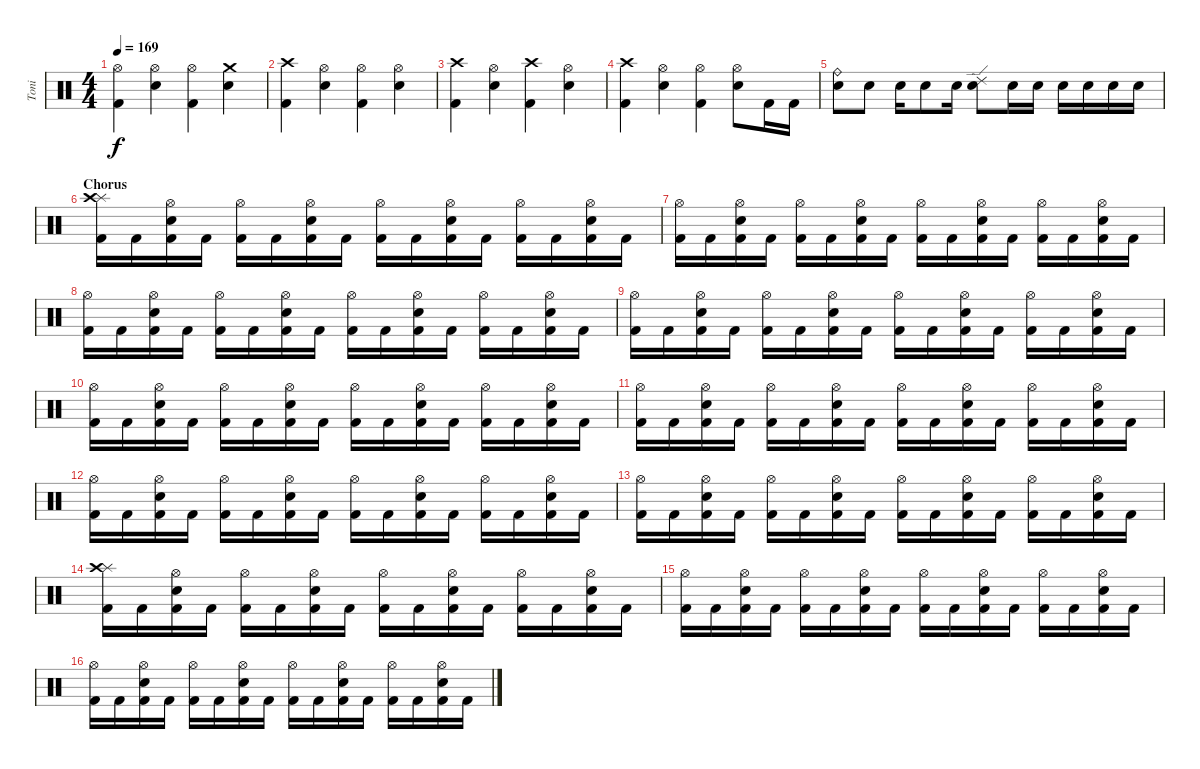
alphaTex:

\track ("Toni" "Toni") {instrument percussion}
\staff {score}
\articulation defaults
\ts (4 4)
\tempo 169
\clef neutral
\ks c
("Hi-Hat (open)" "Kick (hit) 2").4{dy f} ("Hi-Hat (open)" "Electric Snare (hit)").4 ("Hi-Hat (open)" "Kick (hit) 2").4 ("Crash medium (hit)" "Electric Snare (hit)").4 |
("Crash high (hit)" "Kick (hit) 2").4 ("Hi-Hat (open)" "Electric Snare (hit)").4 ("Hi-Hat (open)" "Kick (hit) 2").4 ("Hi-Hat (open)" "Electric Snare (hit)").4 |
("Crash high (hit)" "Kick (hit) 2").4 ("Hi-Hat (open)" "Electric Snare (hit)").4 ("Crash high (hit)" "Kick (hit) 2").4 ("Hi-Hat (open)" "Electric Snare (hit)").4 |
("Crash high (hit)" "Kick (hit) 2").4 ("Hi-Hat (open)" "Electric Snare (hit)").4 ("Hi-Hat (open)" "Kick (hit) 2").4 ("Hi-Hat (open)" "Electric Snare (hit)").8 "Kick (hit) 2".16 "Kick (hit) 2".16 |
("Ride (bell)" "Electric Snare (hit)").8 "Electric Snare (hit)".8 "Electric Snare (hit)".16 "Electric Snare (hit)".8 "Electric Snare (hit)".16 ("Ride (edge) 2" "Electric Snare (hit)").8 "Electric Snare (hit)".16 "Electric Snare (hit)".16 "Electric Snare (hit)".16 "Electric Snare (hit)".16 "Electric Snare (hit)".16 "Electric Snare (hit)".16 |
\section ("" "Chorus")
("Splash (hit)" "Crash high (hit)" "Kick (hit) 2").16 "Kick (hit) 2".16 ("Hi-Hat (open)" "Electric Snare (hit)" "Kick (hit) 2").16 "Kick (hit) 2".16 ("Hi-Hat (open)" "Kick (hit) 2").16 "Kick (hit) 2".16 ("Hi-Hat (open)" "Electric Snare (hit)" "Kick (hit) 2").16 "Kick (hit) 2".16 ("Hi-Hat (open)" "Kick (hit) 2").16 "Kick (hit) 2".16 ("Hi-Hat (open)" "Electric Snare (hit)" "Kick (hit) 2").16 "Kick (hit) 2".16 ("Hi-Hat (open)" "Kick (hit) 2").16 "Kick (hit) 2".16 ("Hi-Hat (open)" "Electric Snare (hit)" "Kick (hit) 2").16 "Kick (hit) 2".16 |
("Hi-Hat (open)" "Kick (hit) 2").16 "Kick (hit) 2".16 ("Hi-Hat (open)" "Electric Snare (hit)" "Kick (hit) 2").16 "Kick (hit) 2".16 ("Hi-Hat (open)" "Kick (hit) 2").16 "Kick (hit) 2".16 ("Hi-Hat (open)" "Electric Snare (hit)" "Kick (hit) 2").16 "Kick (hit) 2".16 ("Hi-Hat (open)" "Kick (hit) 2").16 "Kick (hit) 2".16 ("Hi-Hat (open)" "Electric Snare (hit)" "Kick (hit) 2").16 "Kick (hit) 2".16 ("Hi-Hat (open)" "Kick (hit) 2").16 "Kick (hit) 2".16 ("Hi-Hat (open)" "Electric Snare (hit)" "Kick (hit) 2").16 "Kick (hit) 2".16 |
("Hi-Hat (open)" "Kick (hit) 2").16 "Kick (hit) 2".16 ("Hi-Hat (open)" "Electric Snare (hit)" "Kick (hit) 2").16 "Kick (hit) 2".16 ("Hi-Hat (open)" "Kick (hit) 2").16 "Kick (hit) 2".16 ("Hi-Hat (open)" "Electric Snare (hit)" "Kick (hit) 2").16 "Kick (hit) 2".16 ("Hi-Hat (open)" "Kick (hit) 2").16 "Kick (hit) 2".16 ("Hi-Hat (open)" "Electric Snare (hit)" "Kick (hit) 2").16 "Kick (hit) 2".16 ("Hi-Hat (open)" "Kick (hit) 2").16 "Kick (hit) 2".16 ("Hi-Hat (open)" "Electric Snare (hit)" "Kick (hit) 2").16 "Kick (hit) 2".16 |
("Hi-Hat (open)" "Kick (hit) 2").16 "Kick (hit) 2".16 ("Hi-Hat (open)" "Electric Snare (hit)" "Kick (hit) 2").16 "Kick (hit) 2".16 ("Hi-Hat (open)" "Kick (hit) 2").16 "Kick (hit) 2".16 ("Hi-Hat (open)" "Electric Snare (hit)" "Kick (hit) 2").16 "Kick (hit) 2".16 ("Hi-Hat (open)" "Kick (hit) 2").16 "Kick (hit) 2".16 ("Hi-Hat (open)" "Electric Snare (hit)" "Kick (hit) 2").16 "Kick (hit) 2".16 ("Hi-Hat (open)" "Kick (hit) 2").16 "Kick (hit) 2".16 ("Hi-Hat (open)" "Electric Snare (hit)" "Kick (hit) 2").16 "Kick (hit) 2".16 |
("Hi-Hat (open)" "Kick (hit) 2").16 "Kick (hit) 2".16 ("Hi-Hat (open)" "Electric Snare (hit)" "Kick (hit) 2").16 "Kick (hit) 2".16 ("Hi-Hat (open)" "Kick (hit) 2").16 "Kick (hit) 2".16 ("Hi-Hat (open)" "Electric Snare (hit)" "Kick (hit) 2").16 "Kick (hit) 2".16 ("Hi-Hat (open)" "Kick (hit) 2").16 "Kick (hit) 2".16 ("Hi-Hat (open)" "Electric Snare (hit)" "Kick (hit) 2").16 "Kick (hit) 2".16 ("Hi-Hat (open)" "Kick (hit) 2").16 "Kick (hit) 2".16 ("Hi-Hat (open)" "Electric Snare (hit)" "Kick (hit) 2").16 "Kick (hit) 2".16 |
("Hi-Hat (open)" "Kick (hit) 2").16 "Kick (hit) 2".16 ("Hi-Hat (open)" "Electric Snare (hit)" "Kick (hit) 2").16 "Kick (hit) 2".16 ("Hi-Hat (open)" "Kick (hit) 2").16 "Kick (hit) 2".16 ("Hi-Hat (open)" "Electric Snare (hit)" "Kick (hit) 2").16 "Kick (hit) 2".16 ("Hi-Hat (open)" "Kick (hit) 2").16 "Kick (hit) 2".16 ("Hi-Hat (open)" "Electric Snare (hit)" "Kick (hit) 2").16 "Kick (hit) 2".16 ("Hi-Hat (open)" "Kick (hit) 2").16 "Kick (hit) 2".16 ("Hi-Hat (open)" "Electric Snare (hit)" "Kick (hit) 2").16 "Kick (hit) 2".16 |
("Hi-Hat (open)" "Kick (hit) 2").16 "Kick (hit) 2".16 ("Hi-Hat (open)" "Electric Snare (hit)" "Kick (hit) 2").16 "Kick (hit) 2".16 ("Hi-Hat (open)" "Kick (hit) 2").16 "Kick (hit) 2".16 ("Hi-Hat (open)" "Electric Snare (hit)" "Kick (hit) 2").16 "Kick (hit) 2".16 ("Hi-Hat (open)" "Kick (hit) 2").16 "Kick (hit) 2".16 ("Hi-Hat (open)" "Electric Snare (hit)" "Kick (hit) 2").16 "Kick (hit) 2".16 ("Hi-Hat (open)" "Kick (hit) 2").16 "Kick (hit) 2".16 ("Hi-Hat (open)" "Electric Snare (hit)" "Kick (hit) 2").16 "Kick (hit) 2".16 |
("Hi-Hat (open)" "Kick (hit) 2").16 "Kick (hit) 2".16 ("Hi-Hat (open)" "Electric Snare (hit)" "Kick (hit) 2").16 "Kick (hit) 2".16 ("Hi-Hat (open)" "Kick (hit) 2").16 "Kick (hit) 2".16 ("Hi-Hat (open)" "Electric Snare (hit)" "Kick (hit) 2").16 "Kick (hit) 2".16 ("Hi-Hat (open)" "Kick (hit) 2").16 "Kick (hit) 2".16 ("Hi-Hat (open)" "Electric Snare (hit)" "Kick (hit) 2").16 "Kick (hit) 2".16 ("Hi-Hat (open)" "Kick (hit) 2").16 "Kick (hit) 2".16 ("Hi-Hat (open)" "Electric Snare (hit)" "Kick (hit) 2").16 "Kick (hit) 2".16 |
("Splash (hit)" "Crash high (hit)" "Kick (hit) 2").16 "Kick (hit) 2".16 ("Hi-Hat (open)" "Electric Snare (hit)" "Kick (hit) 2").16 "Kick (hit) 2".16 ("Hi-Hat (open)" "Kick (hit) 2").16 "Kick (hit) 2".16 ("Hi-Hat (open)" "Electric Snare (hit)" "Kick (hit) 2").16 "Kick (hit) 2".16 ("Hi-Hat (open)" "Kick (hit) 2").16 "Kick (hit) 2".16 ("Hi-Hat (open)" "Electric Snare (hit)" "Kick (hit) 2").16 "Kick (hit) 2".16 ("Hi-Hat (open)" "Kick (hit) 2").16 "Kick (hit) 2".16 ("Hi-Hat (open)" "Electric Snare (hit)" "Kick (hit) 2").16 "Kick (hit) 2".16 |
("Hi-Hat (open)" "Kick (hit) 2").16 "Kick (hit) 2".16 ("Hi-Hat (open)" "Electric Snare (hit)" "Kick (hit) 2").16 "Kick (hit) 2".16 ("Hi-Hat (open)" "Kick (hit) 2").16 "Kick (hit) 2".16 ("Hi-Hat (open)" "Electric Snare (hit)" "Kick (hit) 2").16 "Kick (hit) 2".16 ("Hi-Hat (open)" "Kick (hit) 2").16 "Kick (hit) 2".16 ("Hi-Hat (open)" "Electric Snare (hit)" "Kick (hit) 2").16 "Kick (hit) 2".16 ("Hi-Hat (open)" "Kick (hit) 2").16 "Kick (hit) 2".16 ("Hi-Hat (open)" "Electric Snare (hit)" "Kick (hit) 2").16 "Kick (hit) 2".16 |
("Hi-Hat (open)" "Kick (hit) 2").16 "Kick (hit) 2".16 ("Hi-Hat (open)" "Electric Snare (hit)" "Kick (hit) 2").16 "Kick (hit) 2".16 ("Hi-Hat (open)" "Kick (hit) 2").16 "Kick (hit) 2".16 ("Hi-Hat (open)" "Electric Snare (hit)" "Kick (hit) 2").16 "Kick (hit) 2".16 ("Hi-Hat (open)" "Kick (hit) 2").16 "Kick (hit) 2".16 ("Hi-Hat (open)" "Electric Snare (hit)" "Kick (hit) 2").16 "Kick (hit) 2".16 ("Hi-Hat (open)" "Kick (hit) 2").16 "Kick (hit) 2".16 ("Hi-Hat (open)" "Electric Snare (hit)" "Kick (hit) 2").16 "Kick (hit) 2".16
